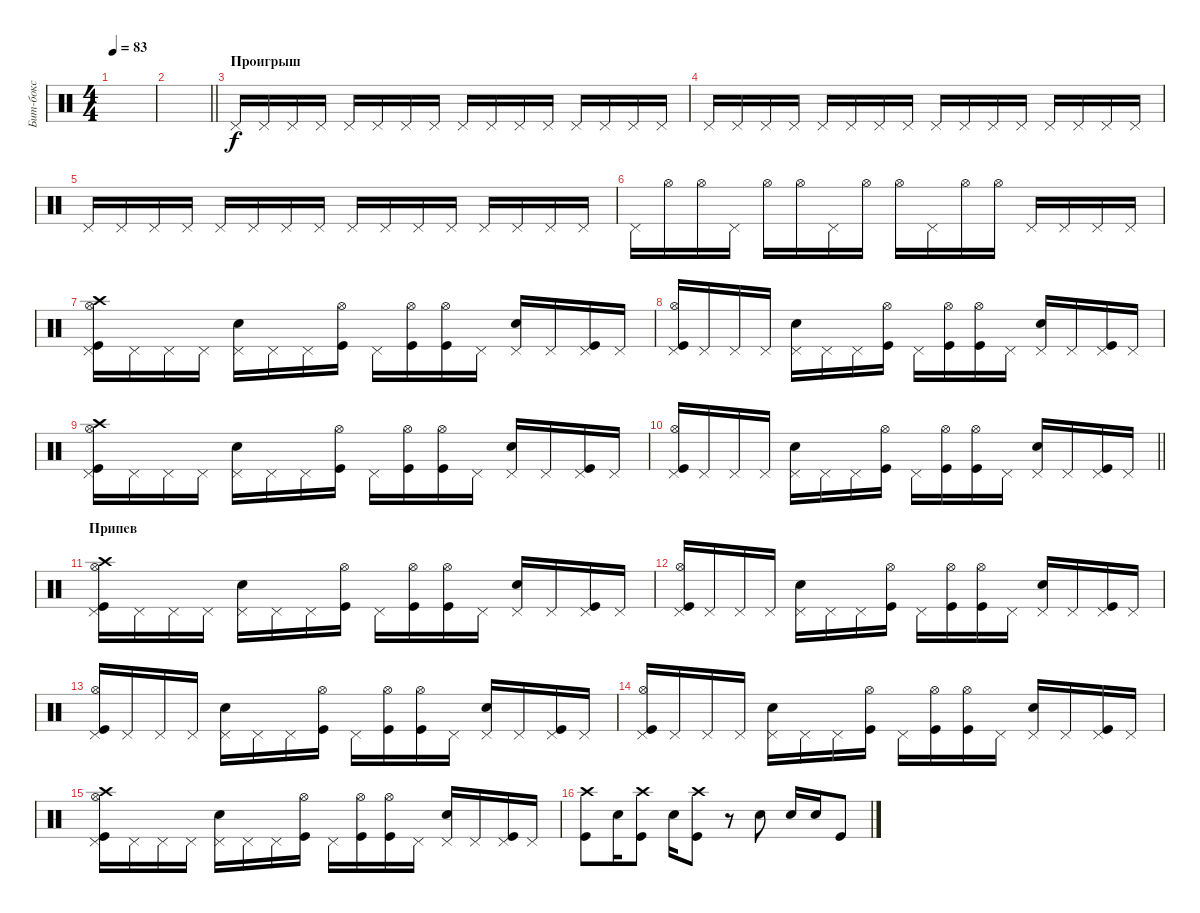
\track ("Бит-бокс" "Бит-бокс") {instrument percussion}
\staff {score}
\articulation defaults
\ts (4 4)
\tempo 83
\clef neutral
\ks c
|
\barLineRight lightlight
|
\section ("" "Проигрыш")
"Pedal Hi-Hat (hit)".16 "Pedal Hi-Hat (hit)".16 "Pedal Hi-Hat (hit)".16 "Pedal Hi-Hat (hit)".16 "Pedal Hi-Hat (hit)".16 "Pedal Hi-Hat (hit)".16 "Pedal Hi-Hat (hit)".16 "Pedal Hi-Hat (hit)".16 "Pedal Hi-Hat (hit)".16 "Pedal Hi-Hat (hit)".16 "Pedal Hi-Hat (hit)".16 "Pedal Hi-Hat (hit)".16 "Pedal Hi-Hat (hit)".16 "Pedal Hi-Hat (hit)".16 "Pedal Hi-Hat (hit)".16 "Pedal Hi-Hat (hit)".16 |
"Pedal Hi-Hat (hit)".16 "Pedal Hi-Hat (hit)".16 "Pedal Hi-Hat (hit)".16 "Pedal Hi-Hat (hit)".16 "Pedal Hi-Hat (hit)".16 "Pedal Hi-Hat (hit)".16 "Pedal Hi-Hat (hit)".16 "Pedal Hi-Hat (hit)".16 "Pedal Hi-Hat (hit)".16 "Pedal Hi-Hat (hit)".16 "Pedal Hi-Hat (hit)".16 "Pedal Hi-Hat (hit)".16 "Pedal Hi-Hat (hit)".16 "Pedal Hi-Hat (hit)".16 "Pedal Hi-Hat (hit)".16 "Pedal Hi-Hat (hit)".16 |
"Pedal Hi-Hat (hit)".16 "Pedal Hi-Hat (hit)".16 "Pedal Hi-Hat (hit)".16 "Pedal Hi-Hat (hit)".16 "Pedal Hi-Hat (hit)".16 "Pedal Hi-Hat (hit)".16 "Pedal Hi-Hat (hit)".16 "Pedal Hi-Hat (hit)".16 "Pedal Hi-Hat (hit)".16 "Pedal Hi-Hat (hit)".16 "Pedal Hi-Hat (hit)".16 "Pedal Hi-Hat (hit)".16 "Pedal Hi-Hat (hit)".16 "Pedal Hi-Hat (hit)".16 "Pedal Hi-Hat (hit)".16 "Pedal Hi-Hat (hit)".16 |
"Pedal Hi-Hat (hit)".16 "Hi-Hat (open)".16 "Hi-Hat (open)".16 "Pedal Hi-Hat (hit)".16 "Hi-Hat (open)".16 "Hi-Hat (open)".16 "Pedal Hi-Hat (hit)".16 "Hi-Hat (open)".16 "Hi-Hat (open)".16 "Pedal Hi-Hat (hit)".16 "Hi-Hat (open)".16 "Hi-Hat (open)".16 "Pedal Hi-Hat (hit)".16 "Pedal Hi-Hat (hit)".16 "Pedal Hi-Hat (hit)".16 "Pedal Hi-Hat (hit)".16 |
("Kick (hit)" "Pedal Hi-Hat (hit)" "Crash high (hit)" "Hi-Hat (open)").16 "Pedal Hi-Hat (hit)".16 "Pedal Hi-Hat (hit)".16 "Pedal Hi-Hat (hit)".16 ("Pedal Hi-Hat (hit)" "Snare (hit) 2").16 "Pedal Hi-Hat (hit)".16 "Pedal Hi-Hat (hit)".16 ("Kick (hit)" "Hi-Hat (open)").16 "Pedal Hi-Hat (hit)".16 ("Kick (hit)" "Hi-Hat (open)").16 ("Kick (hit)" "Hi-Hat (open)").16 "Pedal Hi-Hat (hit)".16 ("Pedal Hi-Hat (hit)" "Snare (hit) 2").16 "Pedal Hi-Hat (hit)".16 ("Kick (hit)" "Pedal Hi-Hat (hit)").16 "Pedal Hi-Hat (hit)".16 |
("Kick (hit)" "Pedal Hi-Hat (hit)" "Hi-Hat (open)").16 "Pedal Hi-Hat (hit)".16 "Pedal Hi-Hat (hit)".16 "Pedal Hi-Hat (hit)".16 ("Pedal Hi-Hat (hit)" "Snare (hit) 2").16 "Pedal Hi-Hat (hit)".16 "Pedal Hi-Hat (hit)".16 ("Kick (hit)" "Hi-Hat (open)").16 "Pedal Hi-Hat (hit)".16 ("Kick (hit)" "Hi-Hat (open)").16 ("Kick (hit)" "Hi-Hat (open)").16 "Pedal Hi-Hat (hit)".16 ("Pedal Hi-Hat (hit)" "Snare (hit) 2").16 "Pedal Hi-Hat (hit)".16 ("Kick (hit)" "Pedal Hi-Hat (hit)").16 "Pedal Hi-Hat (hit)".16 |
("Kick (hit)" "Pedal Hi-Hat (hit)" "Crash high (hit)" "Hi-Hat (open)").16 "Pedal Hi-Hat (hit)".16 "Pedal Hi-Hat (hit)".16 "Pedal Hi-Hat (hit)".16 ("Pedal Hi-Hat (hit)" "Snare (hit) 2").16 "Pedal Hi-Hat (hit)".16 "Pedal Hi-Hat (hit)".16 ("Kick (hit)" "Hi-Hat (open)").16 "Pedal Hi-Hat (hit)".16 ("Kick (hit)" "Hi-Hat (open)").16 ("Kick (hit)" "Hi-Hat (open)").16 "Pedal Hi-Hat (hit)".16 ("Pedal Hi-Hat (hit)" "Snare (hit) 2").16 "Pedal Hi-Hat (hit)".16 ("Kick (hit)" "Pedal Hi-Hat (hit)").16 "Pedal Hi-Hat (hit)".16 |
\barLineRight lightlight
("Kick (hit)" "Pedal Hi-Hat (hit)" "Hi-Hat (open)").16 "Pedal Hi-Hat (hit)".16 "Pedal Hi-Hat (hit)".16 "Pedal Hi-Hat (hit)".16 ("Pedal Hi-Hat (hit)" "Snare (hit) 2").16 "Pedal Hi-Hat (hit)".16 "Pedal Hi-Hat (hit)".16 ("Kick (hit)" "Hi-Hat (open)").16 "Pedal Hi-Hat (hit)".16 ("Kick (hit)" "Hi-Hat (open)").16 ("Kick (hit)" "Hi-Hat (open)").16 "Pedal Hi-Hat (hit)".16 ("Pedal Hi-Hat (hit)" "Snare (hit) 2").16 "Pedal Hi-Hat (hit)".16 ("Kick (hit)" "Pedal Hi-Hat (hit)").16 "Pedal Hi-Hat (hit)".16 |
\section ("" "Припев")
("Kick (hit)" "Pedal Hi-Hat (hit)" "Crash high (hit)" "Hi-Hat (open)").16 "Pedal Hi-Hat (hit)".16 "Pedal Hi-Hat (hit)".16 "Pedal Hi-Hat (hit)".16 ("Pedal Hi-Hat (hit)" "Snare (hit) 2").16 "Pedal Hi-Hat (hit)".16 "Pedal Hi-Hat (hit)".16 ("Kick (hit)" "Hi-Hat (open)").16 "Pedal Hi-Hat (hit)".16 ("Kick (hit)" "Hi-Hat (open)").16 ("Kick (hit)" "Hi-Hat (open)").16 "Pedal Hi-Hat (hit)".16 ("Pedal Hi-Hat (hit)" "Snare (hit) 2").16 "Pedal Hi-Hat (hit)".16 ("Kick (hit)" "Pedal Hi-Hat (hit)").16 "Pedal Hi-Hat (hit)".16 |
("Kick (hit)" "Pedal Hi-Hat (hit)" "Hi-Hat (open)").16 "Pedal Hi-Hat (hit)".16 "Pedal Hi-Hat (hit)".16 "Pedal Hi-Hat (hit)".16 ("Pedal Hi-Hat (hit)" "Snare (hit) 2").16 "Pedal Hi-Hat (hit)".16 "Pedal Hi-Hat (hit)".16 ("Kick (hit)" "Hi-Hat (open)").16 "Pedal Hi-Hat (hit)".16 ("Kick (hit)" "Hi-Hat (open)").16 ("Kick (hit)" "Hi-Hat (open)").16 "Pedal Hi-Hat (hit)".16 ("Pedal Hi-Hat (hit)" "Snare (hit) 2").16 "Pedal Hi-Hat (hit)".16 ("Kick (hit)" "Pedal Hi-Hat (hit)").16 "Pedal Hi-Hat (hit)".16 |
("Kick (hit)" "Pedal Hi-Hat (hit)" "Hi-Hat (open)").16 "Pedal Hi-Hat (hit)".16 "Pedal Hi-Hat (hit)".16 "Pedal Hi-Hat (hit)".16 ("Pedal Hi-Hat (hit)" "Snare (hit) 2").16 "Pedal Hi-Hat (hit)".16 "Pedal Hi-Hat (hit)".16 ("Kick (hit)" "Hi-Hat (open)").16 "Pedal Hi-Hat (hit)".16 ("Kick (hit)" "Hi-Hat (open)").16 ("Kick (hit)" "Hi-Hat (open)").16 "Pedal Hi-Hat (hit)".16 ("Pedal Hi-Hat (hit)" "Snare (hit) 2").16 "Pedal Hi-Hat (hit)".16 ("Kick (hit)" "Pedal Hi-Hat (hit)").16 "Pedal Hi-Hat (hit)".16 |
("Kick (hit)" "Pedal Hi-Hat (hit)" "Hi-Hat (open)").16 "Pedal Hi-Hat (hit)".16 "Pedal Hi-Hat (hit)".16 "Pedal Hi-Hat (hit)".16 ("Pedal Hi-Hat (hit)" "Snare (hit) 2").16 "Pedal Hi-Hat (hit)".16 "Pedal Hi-Hat (hit)".16 ("Kick (hit)" "Hi-Hat (open)").16 "Pedal Hi-Hat (hit)".16 ("Kick (hit)" "Hi-Hat (open)").16 ("Kick (hit)" "Hi-Hat (open)").16 "Pedal Hi-Hat (hit)".16 ("Pedal Hi-Hat (hit)" "Snare (hit) 2").16 "Pedal Hi-Hat (hit)".16 ("Kick (hit)" "Pedal Hi-Hat (hit)").16 "Pedal Hi-Hat (hit)".16 |
("Kick (hit)" "Pedal Hi-Hat (hit)" "Crash high (hit)" "Hi-Hat (open)").16 "Pedal Hi-Hat (hit)".16 "Pedal Hi-Hat (hit)".16 "Pedal Hi-Hat (hit)".16 ("Pedal Hi-Hat (hit)" "Snare (hit) 2").16 "Pedal Hi-Hat (hit)".16 "Pedal Hi-Hat (hit)".16 ("Kick (hit)" "Hi-Hat (open)").16 "Pedal Hi-Hat (hit)".16 ("Kick (hit)" "Hi-Hat (open)").16 ("Kick (hit)" "Hi-Hat (open)").16 "Pedal Hi-Hat (hit)".16 ("Pedal Hi-Hat (hit)" "Snare (hit) 2").16 "Pedal Hi-Hat (hit)".16 ("Kick (hit)" "Pedal Hi-Hat (hit)").16 "Pedal Hi-Hat (hit)".16 |
("Kick (hit)" "Crash high (hit)").8 "Snare (hit) 2".16 ("Kick (hit)" "Crash high (hit)").8 "Snare (hit) 2".16 ("Kick (hit)" "Crash high (hit)").8 r.8 "Snare (hit) 2".8 "Snare (hit) 2".16 "Snare (hit) 2".16 "Kick (hit)".8
